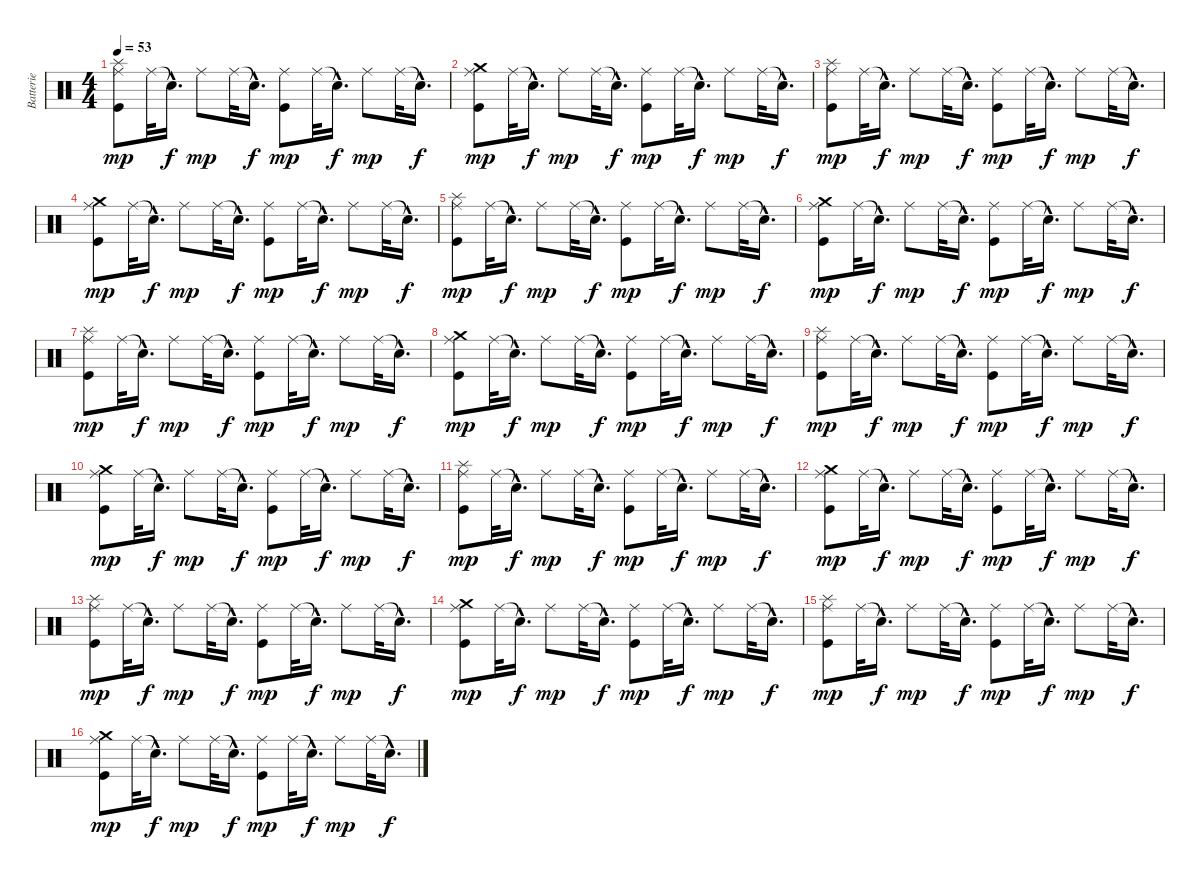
\track ("Batterie" "Batterie") {instrument percussion}
\staff {score}
\articulation defaults
\ts (4 4)
\tempo 53
\clef neutral
\ks c
("Ride (middle)" "Splash (hit)" "Kick (hit)").8{dy mp} "Ride (middle)".32 "Snare (hit)"{hac t}.16{d dy f} "Ride (middle)".8{dy mp} "Ride (middle)".32 "Snare (hit)"{hac t}.16{d dy f} ("Ride (middle)" "Kick (hit)").8{dy mp} "Ride (middle)".32 "Snare (hit)"{hac t}.16{d dy f} "Ride (middle)".8{dy mp} "Ride (middle)".32 "Snare (hit)"{hac t}.16{d dy f} |
("Ride (middle)" "Crash medium (hit)" "Kick (hit)").8{dy mp} "Ride (middle)".32 "Snare (hit)"{hac t}.16{d dy f} "Ride (middle)".8{dy mp} "Ride (middle)".32 "Snare (hit)"{hac t}.16{d dy f} ("Ride (middle)" "Kick (hit)").8{dy mp} "Ride (middle)".32 "Snare (hit)"{hac t}.16{d dy f} "Ride (middle)".8{dy mp} "Ride (middle)".32 "Snare (hit)"{hac t}.16{d dy f} |
("Ride (middle)" "Splash (hit)" "Kick (hit)").8{dy mp} "Ride (middle)".32 "Snare (hit)"{hac t}.16{d dy f} "Ride (middle)".8{dy mp} "Ride (middle)".32 "Snare (hit)"{hac t}.16{d dy f} ("Ride (middle)" "Kick (hit)").8{dy mp} "Ride (middle)".32 "Snare (hit)"{hac t}.16{d dy f} "Ride (middle)".8{dy mp} "Ride (middle)".32 "Snare (hit)"{hac t}.16{d dy f} |
("Ride (middle)" "Crash medium (hit)" "Kick (hit)").8{dy mp} "Ride (middle)".32 "Snare (hit)"{hac t}.16{d dy f} "Ride (middle)".8{dy mp} "Ride (middle)".32 "Snare (hit)"{hac t}.16{d dy f} ("Ride (middle)" "Kick (hit)").8{dy mp} "Ride (middle)".32 "Snare (hit)"{hac t}.16{d dy f} "Ride (middle)".8{dy mp} "Ride (middle)".32 "Snare (hit)"{hac t}.16{d dy f} |
("Ride (middle)" "Splash (hit)" "Kick (hit)").8{dy mp} "Ride (middle)".32 "Snare (hit)"{hac t}.16{d dy f} "Ride (middle)".8{dy mp} "Ride (middle)".32 "Snare (hit)"{hac t}.16{d dy f} ("Ride (middle)" "Kick (hit)").8{dy mp} "Ride (middle)".32 "Snare (hit)"{hac t}.16{d dy f} "Ride (middle)".8{dy mp} "Ride (middle)".32 "Snare (hit)"{hac t}.16{d dy f} |
("Ride (middle)" "Crash medium (hit)" "Kick (hit)").8{dy mp} "Ride (middle)".32 "Snare (hit)"{hac t}.16{d dy f} "Ride (middle)".8{dy mp} "Ride (middle)".32 "Snare (hit)"{hac t}.16{d dy f} ("Ride (middle)" "Kick (hit)").8{dy mp} "Ride (middle)".32 "Snare (hit)"{hac t}.16{d dy f} "Ride (middle)".8{dy mp} "Ride (middle)".32 "Snare (hit)"{hac t}.16{d dy f} |
("Ride (middle)" "Splash (hit)" "Kick (hit)").8{dy mp} "Ride (middle)".32 "Snare (hit)"{hac t}.16{d dy f} "Ride (middle)".8{dy mp} "Ride (middle)".32 "Snare (hit)"{hac t}.16{d dy f} ("Ride (middle)" "Kick (hit)").8{dy mp} "Ride (middle)".32 "Snare (hit)"{hac t}.16{d dy f} "Ride (middle)".8{dy mp} "Ride (middle)".32 "Snare (hit)"{hac t}.16{d dy f} |
("Ride (middle)" "Crash medium (hit)" "Kick (hit)").8{dy mp} "Ride (middle)".32 "Snare (hit)"{hac t}.16{d dy f} "Ride (middle)".8{dy mp} "Ride (middle)".32 "Snare (hit)"{hac t}.16{d dy f} ("Ride (middle)" "Kick (hit)").8{dy mp} "Ride (middle)".32 "Snare (hit)"{hac t}.16{d dy f} "Ride (middle)".8{dy mp} "Ride (middle)".32 "Snare (hit)"{hac t}.16{d dy f} |
("Ride (middle)" "Splash (hit)" "Kick (hit)").8{dy mp} "Ride (middle)".32 "Snare (hit)"{hac t}.16{d dy f} "Ride (middle)".8{dy mp} "Ride (middle)".32 "Snare (hit)"{hac t}.16{d dy f} ("Ride (middle)" "Kick (hit)").8{dy mp} "Ride (middle)".32 "Snare (hit)"{hac t}.16{d dy f} "Ride (middle)".8{dy mp} "Ride (middle)".32 "Snare (hit)"{hac t}.16{d dy f} |
("Ride (middle)" "Crash medium (hit)" "Kick (hit)").8{dy mp} "Ride (middle)".32 "Snare (hit)"{hac t}.16{d dy f} "Ride (middle)".8{dy mp} "Ride (middle)".32 "Snare (hit)"{hac t}.16{d dy f} ("Ride (middle)" "Kick (hit)").8{dy mp} "Ride (middle)".32 "Snare (hit)"{hac t}.16{d dy f} "Ride (middle)".8{dy mp} "Ride (middle)".32 "Snare (hit)"{hac t}.16{d dy f} |
("Ride (middle)" "Splash (hit)" "Kick (hit)").8{dy mp} "Ride (middle)".32 "Snare (hit)"{hac t}.16{d dy f} "Ride (middle)".8{dy mp} "Ride (middle)".32 "Snare (hit)"{hac t}.16{d dy f} ("Ride (middle)" "Kick (hit)").8{dy mp} "Ride (middle)".32 "Snare (hit)"{hac t}.16{d dy f} "Ride (middle)".8{dy mp} "Ride (middle)".32 "Snare (hit)"{hac t}.16{d dy f} |
("Ride (middle)" "Crash medium (hit)" "Kick (hit)").8{dy mp} "Ride (middle)".32 "Snare (hit)"{hac t}.16{d dy f} "Ride (middle)".8{dy mp} "Ride (middle)".32 "Snare (hit)"{hac t}.16{d dy f} ("Ride (middle)" "Kick (hit)").8{dy mp} "Ride (middle)".32 "Snare (hit)"{hac t}.16{d dy f} "Ride (middle)".8{dy mp} "Ride (middle)".32 "Snare (hit)"{hac t}.16{d dy f} |
("Ride (middle)" "Splash (hit)" "Kick (hit)").8{dy mp} "Ride (middle)".32 "Snare (hit)"{hac t}.16{d dy f} "Ride (middle)".8{dy mp} "Ride (middle)".32 "Snare (hit)"{hac t}.16{d dy f} ("Ride (middle)" "Kick (hit)").8{dy mp} "Ride (middle)".32 "Snare (hit)"{hac t}.16{d dy f} "Ride (middle)".8{dy mp} "Ride (middle)".32 "Snare (hit)"{hac t}.16{d dy f} |
("Ride (middle)" "Crash medium (hit)" "Kick (hit)").8{dy mp} "Ride (middle)".32 "Snare (hit)"{hac t}.16{d dy f} "Ride (middle)".8{dy mp} "Ride (middle)".32 "Snare (hit)"{hac t}.16{d dy f} ("Ride (middle)" "Kick (hit)").8{dy mp} "Ride (middle)".32 "Snare (hit)"{hac t}.16{d dy f} "Ride (middle)".8{dy mp} "Ride (middle)".32 "Snare (hit)"{hac t}.16{d dy f} |
("Ride (middle)" "Splash (hit)" "Kick (hit)").8{dy mp} "Ride (middle)".32 "Snare (hit)"{hac t}.16{d dy f} "Ride (middle)".8{dy mp} "Ride (middle)".32 "Snare (hit)"{hac t}.16{d dy f} ("Ride (middle)" "Kick (hit)").8{dy mp} "Ride (middle)".32 "Snare (hit)"{hac t}.16{d dy f} "Ride (middle)".8{dy mp} "Ride (middle)".32 "Snare (hit)"{hac t}.16{d dy f} |
("Ride (middle)" "Crash medium (hit)" "Kick (hit)").8{dy mp} "Ride (middle)".32 "Snare (hit)"{hac t}.16{d dy f} "Ride (middle)".8{dy mp} "Ride (middle)".32 "Snare (hit)"{hac t}.16{d dy f} ("Ride (middle)" "Kick (hit)").8{dy mp} "Ride (middle)".32 "Snare (hit)"{hac t}.16{d dy f} "Ride (middle)".8{dy mp} "Ride (middle)".32 "Snare (hit)"{hac t}.16{d dy f}
